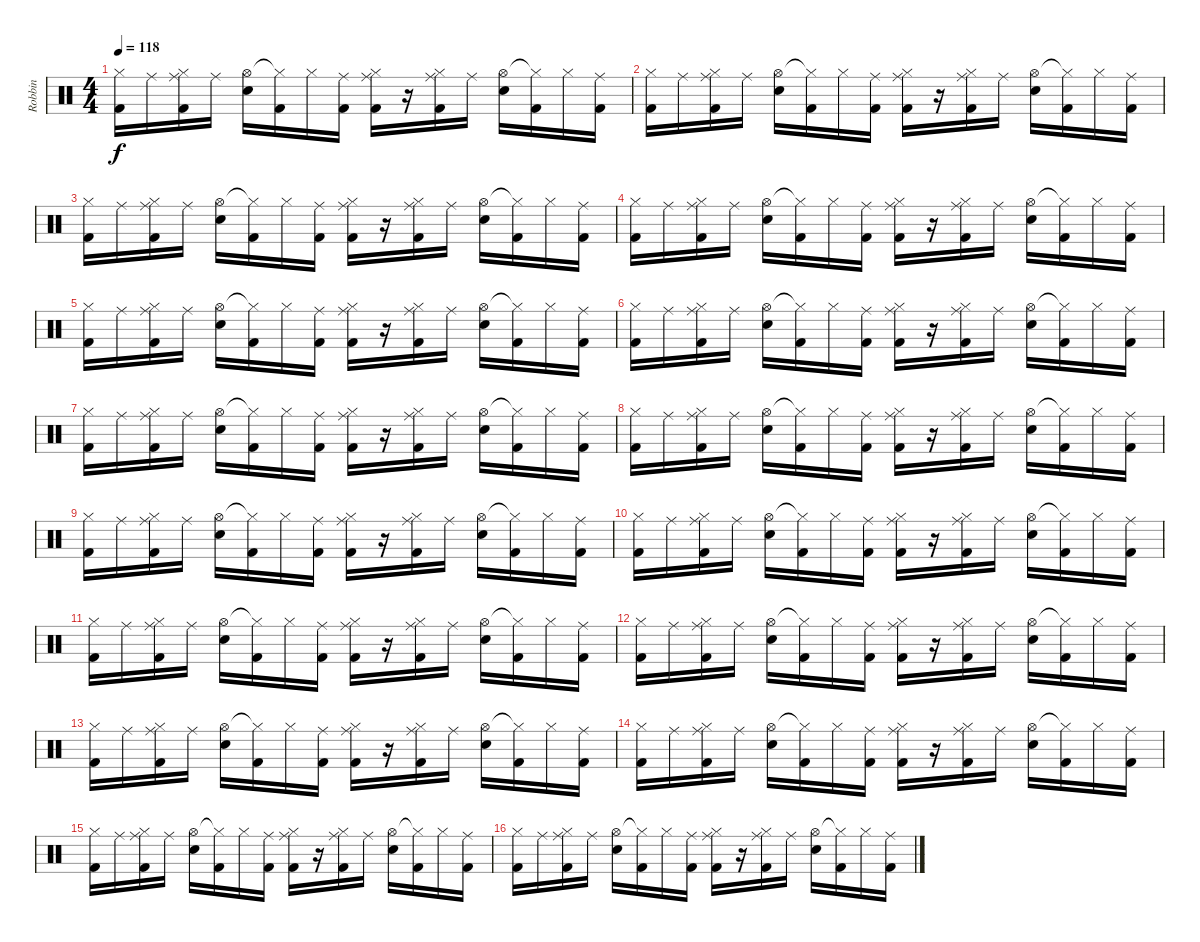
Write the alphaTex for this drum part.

\track ("Robbin" "Robbin") {instrument percussion}
\staff {score}
\articulation defaults
\ts (4 4)
\tempo 118
\clef neutral
\ks c
("Hi-Hat (closed)" "Kick (hit) 2").16{dy f} "Ride (middle)".16 ("Hi-Hat (closed)" "Ride (middle)" "Kick (hit) 2").16 "Ride (middle)".16 ("Hi-Hat (open)" "Snare (hit) 2").16 ("Hi-Hat (closed)"{t} "Kick (hit) 2").16 "Hi-Hat (closed)".16 ("Ride (middle)" "Kick (hit) 2").16 ("Hi-Hat (closed)" "Ride (middle)" "Kick (hit) 2").16 r.16 ("Hi-Hat (closed)" "Ride (middle)" "Kick (hit) 2").16 "Ride (middle)".16 ("Hi-Hat (open)" "Snare (hit) 2").16 ("Hi-Hat (closed)"{t} "Kick (hit) 2").16 "Hi-Hat (closed)".16 ("Ride (middle)" "Kick (hit) 2").16 |
("Hi-Hat (closed)" "Kick (hit) 2").16 "Ride (middle)".16 ("Hi-Hat (closed)" "Ride (middle)" "Kick (hit) 2").16 "Ride (middle)".16 ("Hi-Hat (open)" "Snare (hit) 2").16 ("Hi-Hat (closed)"{t} "Kick (hit) 2").16 "Hi-Hat (closed)".16 ("Ride (middle)" "Kick (hit) 2").16 ("Hi-Hat (closed)" "Ride (middle)" "Kick (hit) 2").16 r.16 ("Hi-Hat (closed)" "Ride (middle)" "Kick (hit) 2").16 "Ride (middle)".16 ("Hi-Hat (open)" "Snare (hit) 2").16 ("Hi-Hat (closed)"{t} "Kick (hit) 2").16 "Hi-Hat (closed)".16 ("Ride (middle)" "Kick (hit) 2").16 |
("Hi-Hat (closed)" "Kick (hit) 2").16 "Ride (middle)".16 ("Hi-Hat (closed)" "Ride (middle)" "Kick (hit) 2").16 "Ride (middle)".16 ("Hi-Hat (open)" "Snare (hit) 2").16 ("Hi-Hat (closed)"{t} "Kick (hit) 2").16 "Hi-Hat (closed)".16 ("Ride (middle)" "Kick (hit) 2").16 ("Hi-Hat (closed)" "Ride (middle)" "Kick (hit) 2").16 r.16 ("Hi-Hat (closed)" "Ride (middle)" "Kick (hit) 2").16 "Ride (middle)".16 ("Hi-Hat (open)" "Snare (hit) 2").16 ("Hi-Hat (closed)"{t} "Kick (hit) 2").16 "Hi-Hat (closed)".16 ("Ride (middle)" "Kick (hit) 2").16 |
("Hi-Hat (closed)" "Kick (hit) 2").16 "Ride (middle)".16 ("Hi-Hat (closed)" "Ride (middle)" "Kick (hit) 2").16 "Ride (middle)".16 ("Hi-Hat (open)" "Snare (hit) 2").16 ("Hi-Hat (closed)"{t} "Kick (hit) 2").16 "Hi-Hat (closed)".16 ("Ride (middle)" "Kick (hit) 2").16 ("Hi-Hat (closed)" "Ride (middle)" "Kick (hit) 2").16 r.16 ("Hi-Hat (closed)" "Ride (middle)" "Kick (hit) 2").16 "Ride (middle)".16 ("Hi-Hat (open)" "Snare (hit) 2").16 ("Hi-Hat (closed)"{t} "Kick (hit) 2").16 "Hi-Hat (closed)".16 ("Ride (middle)" "Kick (hit) 2").16 |
("Hi-Hat (closed)" "Kick (hit) 2").16 "Ride (middle)".16 ("Hi-Hat (closed)" "Ride (middle)" "Kick (hit) 2").16 "Ride (middle)".16 ("Hi-Hat (open)" "Snare (hit) 2").16 ("Hi-Hat (closed)"{t} "Kick (hit) 2").16 "Hi-Hat (closed)".16 ("Ride (middle)" "Kick (hit) 2").16 ("Hi-Hat (closed)" "Ride (middle)" "Kick (hit) 2").16 r.16 ("Hi-Hat (closed)" "Ride (middle)" "Kick (hit) 2").16 "Ride (middle)".16 ("Hi-Hat (open)" "Snare (hit) 2").16 ("Hi-Hat (closed)"{t} "Kick (hit) 2").16 "Hi-Hat (closed)".16 ("Ride (middle)" "Kick (hit) 2").16 |
("Hi-Hat (closed)" "Kick (hit) 2").16 "Ride (middle)".16 ("Hi-Hat (closed)" "Ride (middle)" "Kick (hit) 2").16 "Ride (middle)".16 ("Hi-Hat (open)" "Snare (hit) 2").16 ("Hi-Hat (closed)"{t} "Kick (hit) 2").16 "Hi-Hat (closed)".16 ("Ride (middle)" "Kick (hit) 2").16 ("Hi-Hat (closed)" "Ride (middle)" "Kick (hit) 2").16 r.16 ("Hi-Hat (closed)" "Ride (middle)" "Kick (hit) 2").16 "Ride (middle)".16 ("Hi-Hat (open)" "Snare (hit) 2").16 ("Hi-Hat (closed)"{t} "Kick (hit) 2").16 "Hi-Hat (closed)".16 ("Ride (middle)" "Kick (hit) 2").16 |
("Hi-Hat (closed)" "Kick (hit) 2").16 "Ride (middle)".16 ("Hi-Hat (closed)" "Ride (middle)" "Kick (hit) 2").16 "Ride (middle)".16 ("Hi-Hat (open)" "Snare (hit) 2").16 ("Hi-Hat (closed)"{t} "Kick (hit) 2").16 "Hi-Hat (closed)".16 ("Ride (middle)" "Kick (hit) 2").16 ("Hi-Hat (closed)" "Ride (middle)" "Kick (hit) 2").16 r.16 ("Hi-Hat (closed)" "Ride (middle)" "Kick (hit) 2").16 "Ride (middle)".16 ("Hi-Hat (open)" "Snare (hit) 2").16 ("Hi-Hat (closed)"{t} "Kick (hit) 2").16 "Hi-Hat (closed)".16 ("Ride (middle)" "Kick (hit) 2").16 |
("Hi-Hat (closed)" "Kick (hit) 2").16 "Ride (middle)".16 ("Hi-Hat (closed)" "Ride (middle)" "Kick (hit) 2").16 "Ride (middle)".16 ("Hi-Hat (open)" "Snare (hit) 2").16 ("Hi-Hat (closed)"{t} "Kick (hit) 2").16 "Hi-Hat (closed)".16 ("Ride (middle)" "Kick (hit) 2").16 ("Hi-Hat (closed)" "Ride (middle)" "Kick (hit) 2").16 r.16 ("Hi-Hat (closed)" "Ride (middle)" "Kick (hit) 2").16 "Ride (middle)".16 ("Hi-Hat (open)" "Snare (hit) 2").16 ("Hi-Hat (closed)"{t} "Kick (hit) 2").16 "Hi-Hat (closed)".16 ("Ride (middle)" "Kick (hit) 2").16 |
("Hi-Hat (closed)" "Kick (hit) 2").16 "Ride (middle)".16 ("Hi-Hat (closed)" "Ride (middle)" "Kick (hit) 2").16 "Ride (middle)".16 ("Hi-Hat (open)" "Snare (hit) 2").16 ("Hi-Hat (closed)"{t} "Kick (hit) 2").16 "Hi-Hat (closed)".16 ("Ride (middle)" "Kick (hit) 2").16 ("Hi-Hat (closed)" "Ride (middle)" "Kick (hit) 2").16 r.16 ("Hi-Hat (closed)" "Ride (middle)" "Kick (hit) 2").16 "Ride (middle)".16 ("Hi-Hat (open)" "Snare (hit) 2").16 ("Hi-Hat (closed)"{t} "Kick (hit) 2").16 "Hi-Hat (closed)".16 ("Ride (middle)" "Kick (hit) 2").16 |
("Hi-Hat (closed)" "Kick (hit) 2").16 "Ride (middle)".16 ("Hi-Hat (closed)" "Ride (middle)" "Kick (hit) 2").16 "Ride (middle)".16 ("Hi-Hat (open)" "Snare (hit) 2").16 ("Hi-Hat (closed)"{t} "Kick (hit) 2").16 "Hi-Hat (closed)".16 ("Ride (middle)" "Kick (hit) 2").16 ("Hi-Hat (closed)" "Ride (middle)" "Kick (hit) 2").16 r.16 ("Hi-Hat (closed)" "Ride (middle)" "Kick (hit) 2").16 "Ride (middle)".16 ("Hi-Hat (open)" "Snare (hit) 2").16 ("Hi-Hat (closed)"{t} "Kick (hit) 2").16 "Hi-Hat (closed)".16 ("Ride (middle)" "Kick (hit) 2").16 |
("Hi-Hat (closed)" "Kick (hit) 2").16 "Ride (middle)".16 ("Hi-Hat (closed)" "Ride (middle)" "Kick (hit) 2").16 "Ride (middle)".16 ("Hi-Hat (open)" "Snare (hit) 2").16 ("Hi-Hat (closed)"{t} "Kick (hit) 2").16 "Hi-Hat (closed)".16 ("Ride (middle)" "Kick (hit) 2").16 ("Hi-Hat (closed)" "Ride (middle)" "Kick (hit) 2").16 r.16 ("Hi-Hat (closed)" "Ride (middle)" "Kick (hit) 2").16 "Ride (middle)".16 ("Hi-Hat (open)" "Snare (hit) 2").16 ("Hi-Hat (closed)"{t} "Kick (hit) 2").16 "Hi-Hat (closed)".16 ("Ride (middle)" "Kick (hit) 2").16 |
("Hi-Hat (closed)" "Kick (hit) 2").16 "Ride (middle)".16 ("Hi-Hat (closed)" "Ride (middle)" "Kick (hit) 2").16 "Ride (middle)".16 ("Hi-Hat (open)" "Snare (hit) 2").16 ("Hi-Hat (closed)"{t} "Kick (hit) 2").16 "Hi-Hat (closed)".16 ("Ride (middle)" "Kick (hit) 2").16 ("Hi-Hat (closed)" "Ride (middle)" "Kick (hit) 2").16 r.16 ("Hi-Hat (closed)" "Ride (middle)" "Kick (hit) 2").16 "Ride (middle)".16 ("Hi-Hat (open)" "Snare (hit) 2").16 ("Hi-Hat (closed)"{t} "Kick (hit) 2").16 "Hi-Hat (closed)".16 ("Ride (middle)" "Kick (hit) 2").16 |
("Hi-Hat (closed)" "Kick (hit) 2").16 "Ride (middle)".16 ("Hi-Hat (closed)" "Ride (middle)" "Kick (hit) 2").16 "Ride (middle)".16 ("Hi-Hat (open)" "Snare (hit) 2").16 ("Hi-Hat (closed)"{t} "Kick (hit) 2").16 "Hi-Hat (closed)".16 ("Ride (middle)" "Kick (hit) 2").16 ("Hi-Hat (closed)" "Ride (middle)" "Kick (hit) 2").16 r.16 ("Hi-Hat (closed)" "Ride (middle)" "Kick (hit) 2").16 "Ride (middle)".16 ("Hi-Hat (open)" "Snare (hit) 2").16 ("Hi-Hat (closed)"{t} "Kick (hit) 2").16 "Hi-Hat (closed)".16 ("Ride (middle)" "Kick (hit) 2").16 |
("Hi-Hat (closed)" "Kick (hit) 2").16 "Ride (middle)".16 ("Hi-Hat (closed)" "Ride (middle)" "Kick (hit) 2").16 "Ride (middle)".16 ("Hi-Hat (open)" "Snare (hit) 2").16 ("Hi-Hat (closed)"{t} "Kick (hit) 2").16 "Hi-Hat (closed)".16 ("Ride (middle)" "Kick (hit) 2").16 ("Hi-Hat (closed)" "Ride (middle)" "Kick (hit) 2").16 r.16 ("Hi-Hat (closed)" "Ride (middle)" "Kick (hit) 2").16 "Ride (middle)".16 ("Hi-Hat (open)" "Snare (hit) 2").16 ("Hi-Hat (closed)"{t} "Kick (hit) 2").16 "Hi-Hat (closed)".16 ("Ride (middle)" "Kick (hit) 2").16 |
("Hi-Hat (closed)" "Kick (hit) 2").16 "Ride (middle)".16 ("Hi-Hat (closed)" "Ride (middle)" "Kick (hit) 2").16 "Ride (middle)".16 ("Hi-Hat (open)" "Snare (hit) 2").16 ("Hi-Hat (closed)"{t} "Kick (hit) 2").16 "Hi-Hat (closed)".16 ("Ride (middle)" "Kick (hit) 2").16 ("Hi-Hat (closed)" "Ride (middle)" "Kick (hit) 2").16 r.16 ("Hi-Hat (closed)" "Ride (middle)" "Kick (hit) 2").16 "Ride (middle)".16 ("Hi-Hat (open)" "Snare (hit) 2").16 ("Hi-Hat (closed)"{t} "Kick (hit) 2").16 "Hi-Hat (closed)".16 ("Ride (middle)" "Kick (hit) 2").16 |
("Hi-Hat (closed)" "Kick (hit) 2").16 "Ride (middle)".16 ("Hi-Hat (closed)" "Ride (middle)" "Kick (hit) 2").16 "Ride (middle)".16 ("Hi-Hat (open)" "Snare (hit) 2").16 ("Hi-Hat (closed)"{t} "Kick (hit) 2").16 "Hi-Hat (closed)".16 ("Ride (middle)" "Kick (hit) 2").16 ("Hi-Hat (closed)" "Ride (middle)" "Kick (hit) 2").16 r.16 ("Hi-Hat (closed)" "Ride (middle)" "Kick (hit) 2").16 "Ride (middle)".16 ("Hi-Hat (open)" "Snare (hit) 2").16 ("Hi-Hat (closed)"{t} "Kick (hit) 2").16 "Hi-Hat (closed)".16 ("Ride (middle)" "Kick (hit) 2").16
